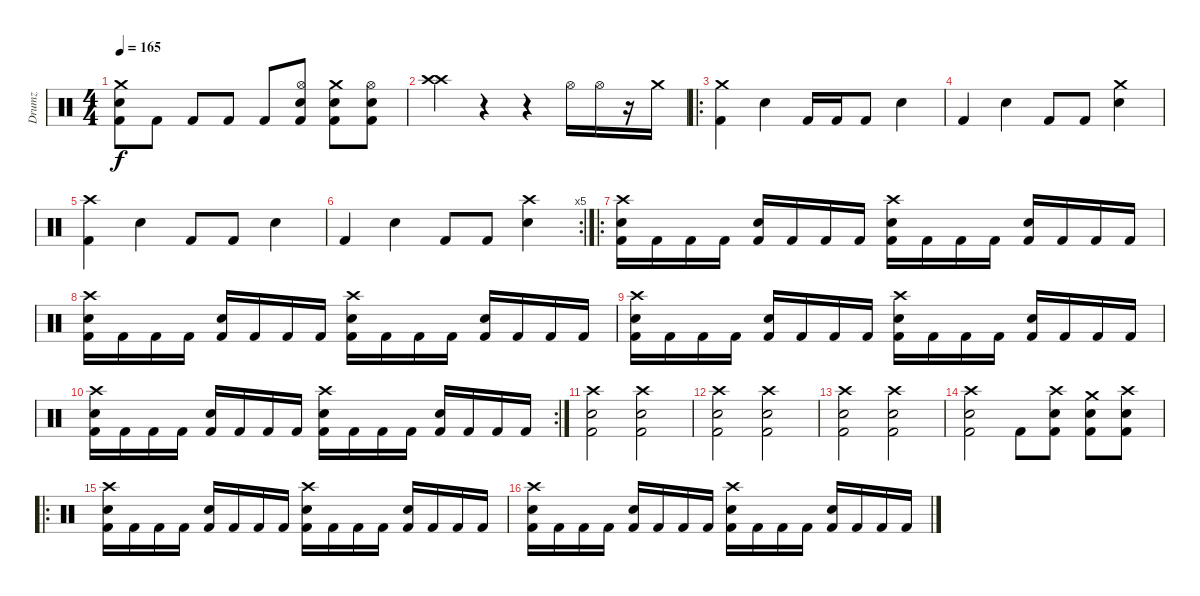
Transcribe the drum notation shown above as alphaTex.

\track ("Drumz" "Drumz") {instrument percussion}
\staff {score}
\articulation defaults
\ts (4 4)
\tempo 165
\clef neutral
\ks c
("Crash medium (hit)" "Electric Snare (hit)" "Kick (hit) 2").8{dy f} "Kick (hit) 2".8 "Kick (hit) 2".8 "Kick (hit) 2".8 "Kick (hit) 2".8 ("Hi-Hat (open)" "Snare (hit) 2" "Kick (hit) 2").8 ("Crash medium (hit)" "Snare (hit) 2" "Kick (hit) 2").8 ("Hi-Hat (open)" "Snare (hit) 2" "Kick (hit) 2").8 |
("Crash high (hit)" "Crash high (hit)").4 r.4 r.4 "Hi-Hat (open)".16 "Hi-Hat (open)".16 r.16 "Crash medium (hit)".16 |
\ro
("Crash medium (hit)" "Kick (hit) 2").4 "Electric Snare (hit)".4 "Kick (hit) 2".16 "Kick (hit) 2".16 "Kick (hit) 2".8 "Electric Snare (hit)".4 |
"Kick (hit) 2".4 "Electric Snare (hit)".4 "Kick (hit) 2".8 "Kick (hit) 2".8 ("Crash medium (hit)" "Electric Snare (hit)").4 |
("Crash high (hit)" "Kick (hit) 2").4 "Electric Snare (hit)".4 "Kick (hit) 2".8 "Kick (hit) 2".8 "Electric Snare (hit)".4 |
\rc 5 "Kick (hit) 2".4 "Electric Snare (hit)".4 "Kick (hit) 2".8 "Kick (hit) 2".8
("Crash high (hit)" "Electric Snare (hit)").4 |
\ro
("Crash high (hit)" "Kick (hit) 2" "Snare (hit) 2").16 "Kick (hit) 2".16 "Kick (hit) 2".16 "Kick (hit) 2".16 ("Snare (hit) 2" "Kick (hit) 2").16 "Kick (hit) 2".16 "Kick (hit) 2".16 "Kick (hit) 2".16 ("Crash high (hit)" "Kick (hit) 2" "Snare (hit) 2").16 "Kick (hit) 2".16 "Kick (hit) 2".16 "Kick (hit) 2".16 ("Snare (hit) 2" "Kick (hit) 2").16 "Kick (hit) 2".16 "Kick (hit) 2".16 "Kick (hit) 2".16 |
("Crash high (hit)" "Kick (hit) 2" "Snare (hit) 2").16 "Kick (hit) 2".16 "Kick (hit) 2".16 "Kick (hit) 2".16 ("Snare (hit) 2" "Kick (hit) 2").16 "Kick (hit) 2".16 "Kick (hit) 2".16 "Kick (hit) 2".16 ("Crash high (hit)" "Kick (hit) 2" "Snare (hit) 2").16 "Kick (hit) 2".16 "Kick (hit) 2".16 "Kick (hit) 2".16 ("Snare (hit) 2" "Kick (hit) 2").16 "Kick (hit) 2".16 "Kick (hit) 2".16 "Kick (hit) 2".16 |
("Crash high (hit)" "Kick (hit) 2" "Snare (hit) 2").16 "Kick (hit) 2".16 "Kick (hit) 2".16 "Kick (hit) 2".16 ("Snare (hit) 2" "Kick (hit) 2").16 "Kick (hit) 2".16 "Kick (hit) 2".16 "Kick (hit) 2".16 ("Crash high (hit)" "Kick (hit) 2" "Snare (hit) 2").16 "Kick (hit) 2".16 "Kick (hit) 2".16 "Kick (hit) 2".16 ("Snare (hit) 2" "Kick (hit) 2").16 "Kick (hit) 2".16 "Kick (hit) 2".16 "Kick (hit) 2".16 |
\rc 2
("Crash high (hit)" "Kick (hit) 2" "Snare (hit) 2").16 "Kick (hit) 2".16 "Kick (hit) 2".16 "Kick (hit) 2".16 ("Snare (hit) 2" "Kick (hit) 2").16 "Kick (hit) 2".16 "Kick (hit) 2".16 "Kick (hit) 2".16 ("Crash high (hit)" "Kick (hit) 2" "Snare (hit) 2").16 "Kick (hit) 2".16 "Kick (hit) 2".16 "Kick (hit) 2".16 ("Snare (hit) 2" "Kick (hit) 2").16 "Kick (hit) 2".16 "Kick (hit) 2".16 "Kick (hit) 2".16 |
("Crash high (hit)" "Snare (hit) 2" "Kick (hit) 2").2 ("Crash high (hit)" "Snare (hit) 2" "Kick (hit) 2").2 |
("Crash high (hit)" "Snare (hit) 2" "Kick (hit) 2").2 ("Crash high (hit)" "Snare (hit) 2" "Kick (hit) 2").2 |
("Crash high (hit)" "Snare (hit) 2" "Kick (hit) 2").2 ("Crash high (hit)" "Snare (hit) 2" "Kick (hit) 2").2 |
("Crash high (hit)" "Snare (hit) 2" "Kick (hit) 2").2 "Kick (hit) 2".8 ("Crash high (hit)" "Snare (hit) 2" "Kick (hit) 2").8 ("Crash medium (hit)" "Snare (hit) 2" "Kick (hit) 2").8 ("Crash high (hit)" "Snare (hit) 2" "Kick (hit) 2").8 |
\ro
("Crash high (hit)" "Kick (hit) 2" "Snare (hit) 2").16 "Kick (hit) 2".16 "Kick (hit) 2".16 "Kick (hit) 2".16 ("Snare (hit) 2" "Kick (hit) 2").16 "Kick (hit) 2".16 "Kick (hit) 2".16 "Kick (hit) 2".16 ("Crash high (hit)" "Kick (hit) 2" "Snare (hit) 2").16 "Kick (hit) 2".16 "Kick (hit) 2".16 "Kick (hit) 2".16 ("Snare (hit) 2" "Kick (hit) 2").16 "Kick (hit) 2".16 "Kick (hit) 2".16 "Kick (hit) 2".16 |
("Crash high (hit)" "Kick (hit) 2" "Snare (hit) 2").16 "Kick (hit) 2".16 "Kick (hit) 2".16 "Kick (hit) 2".16 ("Snare (hit) 2" "Kick (hit) 2").16 "Kick (hit) 2".16 "Kick (hit) 2".16 "Kick (hit) 2".16 ("Crash high (hit)" "Kick (hit) 2" "Snare (hit) 2").16 "Kick (hit) 2".16 "Kick (hit) 2".16 "Kick (hit) 2".16 ("Snare (hit) 2" "Kick (hit) 2").16 "Kick (hit) 2".16 "Kick (hit) 2".16 "Kick (hit) 2".16
